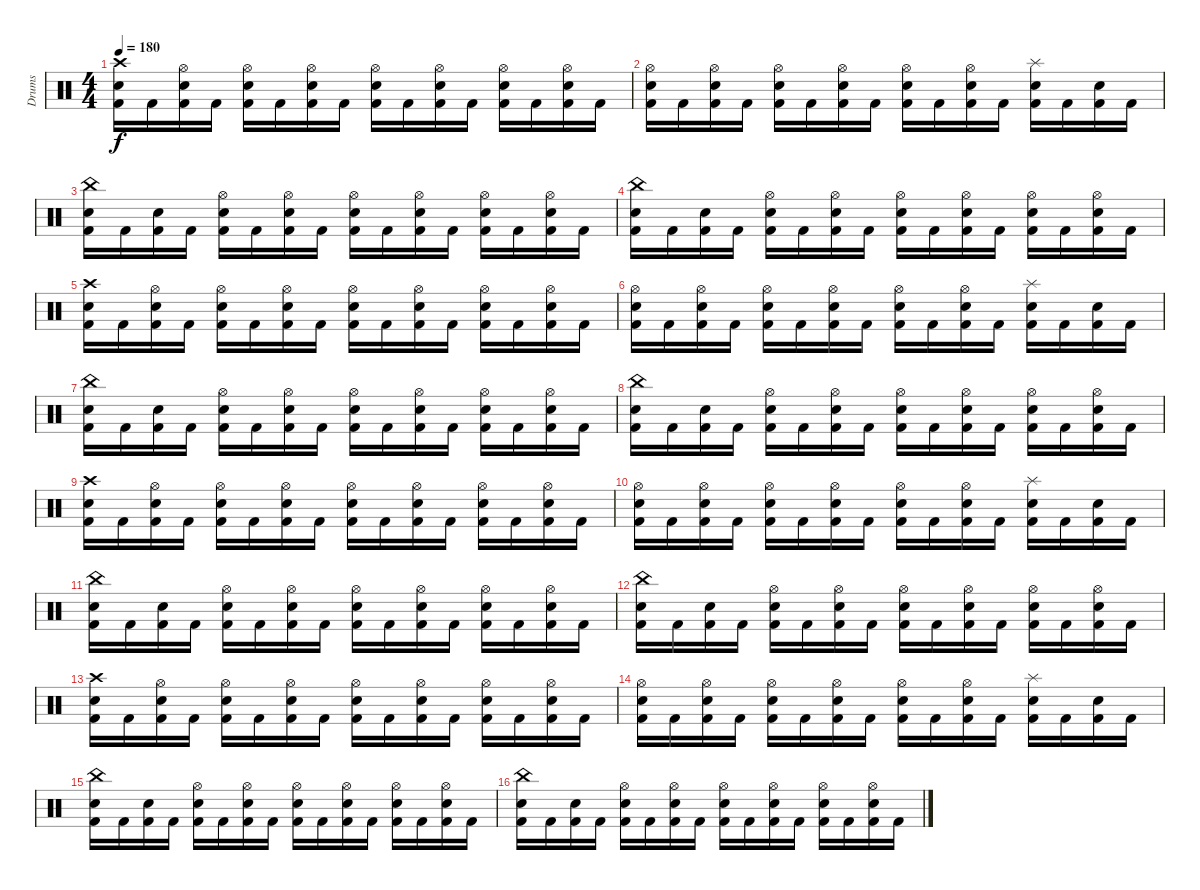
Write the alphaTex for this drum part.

\track ("Drums" "Drums") {instrument percussion}
\staff {score}
\articulation defaults
\ts (4 4)
\tempo 180
\clef neutral
\ks c
("Kick (hit) 2" "Snare (hit) 2" "Crash high (hit)").16{dy f} "Kick (hit) 2".16 ("Kick (hit) 2" "Snare (hit) 2" "Hi-Hat (open)").16 "Kick (hit) 2".16 ("Kick (hit) 2" "Snare (hit) 2" "Hi-Hat (open)").16 "Kick (hit) 2".16 ("Kick (hit) 2" "Snare (hit) 2" "Hi-Hat (open)").16 "Kick (hit) 2".16 ("Kick (hit) 2" "Snare (hit) 2" "Hi-Hat (open)").16 "Kick (hit) 2".16 ("Kick (hit) 2" "Snare (hit) 2" "Hi-Hat (open)").16 "Kick (hit) 2".16 ("Kick (hit) 2" "Snare (hit) 2" "Hi-Hat (open)").16 "Kick (hit) 2".16 ("Kick (hit) 2" "Snare (hit) 2" "Hi-Hat (open)").16 "Kick (hit) 2".16 |
("Kick (hit) 2" "Snare (hit) 2" "Hi-Hat (open)").16 "Kick (hit) 2".16 ("Kick (hit) 2" "Snare (hit) 2" "Hi-Hat (open)").16 "Kick (hit) 2".16 ("Kick (hit) 2" "Snare (hit) 2" "Hi-Hat (open)").16 "Kick (hit) 2".16 ("Kick (hit) 2" "Snare (hit) 2" "Hi-Hat (open)").16 "Kick (hit) 2".16 ("Kick (hit) 2" "Snare (hit) 2" "Hi-Hat (open)").16 "Kick (hit) 2".16 ("Kick (hit) 2" "Snare (hit) 2" "Hi-Hat (open)").16 "Kick (hit) 2".16 ("Kick (hit) 2" "Snare (hit) 2" "Splash (hit)").16 "Kick (hit) 2".16 ("Kick (hit) 2" "Snare (hit) 2").16 "Kick (hit) 2".16 |
("Kick (hit) 2" "Snare (hit) 2" "China (hit)").16 "Kick (hit) 2".16 ("Kick (hit) 2" "Snare (hit) 2").16 "Kick (hit) 2".16 ("Kick (hit) 2" "Snare (hit) 2" "Hi-Hat (open)").16 "Kick (hit) 2".16 ("Kick (hit) 2" "Snare (hit) 2" "Hi-Hat (open)").16 "Kick (hit) 2".16 ("Kick (hit) 2" "Snare (hit) 2" "Hi-Hat (open)").16 "Kick (hit) 2".16 ("Kick (hit) 2" "Snare (hit) 2" "Hi-Hat (open)").16 "Kick (hit) 2".16 ("Kick (hit) 2" "Snare (hit) 2" "Hi-Hat (open)").16 "Kick (hit) 2".16 ("Kick (hit) 2" "Snare (hit) 2" "Hi-Hat (open)").16 "Kick (hit) 2".16 |
("Kick (hit) 2" "Snare (hit) 2" "China (hit)").16 "Kick (hit) 2".16 ("Kick (hit) 2" "Snare (hit) 2").16 "Kick (hit) 2".16 ("Kick (hit) 2" "Snare (hit) 2" "Hi-Hat (open)").16 "Kick (hit) 2".16 ("Kick (hit) 2" "Snare (hit) 2" "Hi-Hat (open)").16 "Kick (hit) 2".16 ("Kick (hit) 2" "Snare (hit) 2" "Hi-Hat (open)").16 "Kick (hit) 2".16 ("Kick (hit) 2" "Snare (hit) 2" "Hi-Hat (open)").16 "Kick (hit) 2".16 ("Kick (hit) 2" "Snare (hit) 2" "Hi-Hat (open)").16 "Kick (hit) 2".16 ("Kick (hit) 2" "Snare (hit) 2" "Hi-Hat (open)").16 "Kick (hit) 2".16 |
("Kick (hit) 2" "Snare (hit) 2" "Crash high (hit)").16 "Kick (hit) 2".16 ("Kick (hit) 2" "Snare (hit) 2" "Hi-Hat (open)").16 "Kick (hit) 2".16 ("Kick (hit) 2" "Snare (hit) 2" "Hi-Hat (open)").16 "Kick (hit) 2".16 ("Kick (hit) 2" "Snare (hit) 2" "Hi-Hat (open)").16 "Kick (hit) 2".16 ("Kick (hit) 2" "Snare (hit) 2" "Hi-Hat (open)").16 "Kick (hit) 2".16 ("Kick (hit) 2" "Snare (hit) 2" "Hi-Hat (open)").16 "Kick (hit) 2".16 ("Kick (hit) 2" "Snare (hit) 2" "Hi-Hat (open)").16 "Kick (hit) 2".16 ("Kick (hit) 2" "Snare (hit) 2" "Hi-Hat (open)").16 "Kick (hit) 2".16 |
("Kick (hit) 2" "Snare (hit) 2" "Hi-Hat (open)").16 "Kick (hit) 2".16 ("Kick (hit) 2" "Snare (hit) 2" "Hi-Hat (open)").16 "Kick (hit) 2".16 ("Kick (hit) 2" "Snare (hit) 2" "Hi-Hat (open)").16 "Kick (hit) 2".16 ("Kick (hit) 2" "Snare (hit) 2" "Hi-Hat (open)").16 "Kick (hit) 2".16 ("Kick (hit) 2" "Snare (hit) 2" "Hi-Hat (open)").16 "Kick (hit) 2".16 ("Kick (hit) 2" "Snare (hit) 2" "Hi-Hat (open)").16 "Kick (hit) 2".16 ("Kick (hit) 2" "Snare (hit) 2" "Splash (hit)").16 "Kick (hit) 2".16 ("Kick (hit) 2" "Snare (hit) 2").16 "Kick (hit) 2".16 |
("Kick (hit) 2" "Snare (hit) 2" "China (hit)").16 "Kick (hit) 2".16 ("Kick (hit) 2" "Snare (hit) 2").16 "Kick (hit) 2".16 ("Kick (hit) 2" "Snare (hit) 2" "Hi-Hat (open)").16 "Kick (hit) 2".16 ("Kick (hit) 2" "Snare (hit) 2" "Hi-Hat (open)").16 "Kick (hit) 2".16 ("Kick (hit) 2" "Snare (hit) 2" "Hi-Hat (open)").16 "Kick (hit) 2".16 ("Kick (hit) 2" "Snare (hit) 2" "Hi-Hat (open)").16 "Kick (hit) 2".16 ("Kick (hit) 2" "Snare (hit) 2" "Hi-Hat (open)").16 "Kick (hit) 2".16 ("Kick (hit) 2" "Snare (hit) 2" "Hi-Hat (open)").16 "Kick (hit) 2".16 |
("Kick (hit) 2" "Snare (hit) 2" "China (hit)").16 "Kick (hit) 2".16 ("Kick (hit) 2" "Snare (hit) 2").16 "Kick (hit) 2".16 ("Kick (hit) 2" "Snare (hit) 2" "Hi-Hat (open)").16 "Kick (hit) 2".16 ("Kick (hit) 2" "Snare (hit) 2" "Hi-Hat (open)").16 "Kick (hit) 2".16 ("Kick (hit) 2" "Snare (hit) 2" "Hi-Hat (open)").16 "Kick (hit) 2".16 ("Kick (hit) 2" "Snare (hit) 2" "Hi-Hat (open)").16 "Kick (hit) 2".16 ("Kick (hit) 2" "Snare (hit) 2" "Hi-Hat (open)").16 "Kick (hit) 2".16 ("Kick (hit) 2" "Snare (hit) 2" "Hi-Hat (open)").16 "Kick (hit) 2".16 |
("Kick (hit) 2" "Snare (hit) 2" "Crash high (hit)").16 "Kick (hit) 2".16 ("Kick (hit) 2" "Snare (hit) 2" "Hi-Hat (open)").16 "Kick (hit) 2".16 ("Kick (hit) 2" "Snare (hit) 2" "Hi-Hat (open)").16 "Kick (hit) 2".16 ("Kick (hit) 2" "Snare (hit) 2" "Hi-Hat (open)").16 "Kick (hit) 2".16 ("Kick (hit) 2" "Snare (hit) 2" "Hi-Hat (open)").16 "Kick (hit) 2".16 ("Kick (hit) 2" "Snare (hit) 2" "Hi-Hat (open)").16 "Kick (hit) 2".16 ("Kick (hit) 2" "Snare (hit) 2" "Hi-Hat (open)").16 "Kick (hit) 2".16 ("Kick (hit) 2" "Snare (hit) 2" "Hi-Hat (open)").16 "Kick (hit) 2".16 |
("Kick (hit) 2" "Snare (hit) 2" "Hi-Hat (open)").16 "Kick (hit) 2".16 ("Kick (hit) 2" "Snare (hit) 2" "Hi-Hat (open)").16 "Kick (hit) 2".16 ("Kick (hit) 2" "Snare (hit) 2" "Hi-Hat (open)").16 "Kick (hit) 2".16 ("Kick (hit) 2" "Snare (hit) 2" "Hi-Hat (open)").16 "Kick (hit) 2".16 ("Kick (hit) 2" "Snare (hit) 2" "Hi-Hat (open)").16 "Kick (hit) 2".16 ("Kick (hit) 2" "Snare (hit) 2" "Hi-Hat (open)").16 "Kick (hit) 2".16 ("Kick (hit) 2" "Snare (hit) 2" "Splash (hit)").16 "Kick (hit) 2".16 ("Kick (hit) 2" "Snare (hit) 2").16 "Kick (hit) 2".16 |
("Kick (hit) 2" "Snare (hit) 2" "China (hit)").16 "Kick (hit) 2".16 ("Kick (hit) 2" "Snare (hit) 2").16 "Kick (hit) 2".16 ("Kick (hit) 2" "Snare (hit) 2" "Hi-Hat (open)").16 "Kick (hit) 2".16 ("Kick (hit) 2" "Snare (hit) 2" "Hi-Hat (open)").16 "Kick (hit) 2".16 ("Kick (hit) 2" "Snare (hit) 2" "Hi-Hat (open)").16 "Kick (hit) 2".16 ("Kick (hit) 2" "Snare (hit) 2" "Hi-Hat (open)").16 "Kick (hit) 2".16 ("Kick (hit) 2" "Snare (hit) 2" "Hi-Hat (open)").16 "Kick (hit) 2".16 ("Kick (hit) 2" "Snare (hit) 2" "Hi-Hat (open)").16 "Kick (hit) 2".16 |
("Kick (hit) 2" "Snare (hit) 2" "China (hit)").16 "Kick (hit) 2".16 ("Kick (hit) 2" "Snare (hit) 2").16 "Kick (hit) 2".16 ("Kick (hit) 2" "Snare (hit) 2" "Hi-Hat (open)").16 "Kick (hit) 2".16 ("Kick (hit) 2" "Snare (hit) 2" "Hi-Hat (open)").16 "Kick (hit) 2".16 ("Kick (hit) 2" "Snare (hit) 2" "Hi-Hat (open)").16 "Kick (hit) 2".16 ("Kick (hit) 2" "Snare (hit) 2" "Hi-Hat (open)").16 "Kick (hit) 2".16 ("Kick (hit) 2" "Snare (hit) 2" "Hi-Hat (open)").16 "Kick (hit) 2".16 ("Kick (hit) 2" "Snare (hit) 2" "Hi-Hat (open)").16 "Kick (hit) 2".16 |
("Kick (hit) 2" "Snare (hit) 2" "Crash high (hit)").16 "Kick (hit) 2".16 ("Kick (hit) 2" "Snare (hit) 2" "Hi-Hat (open)").16 "Kick (hit) 2".16 ("Kick (hit) 2" "Snare (hit) 2" "Hi-Hat (open)").16 "Kick (hit) 2".16 ("Kick (hit) 2" "Snare (hit) 2" "Hi-Hat (open)").16 "Kick (hit) 2".16 ("Kick (hit) 2" "Snare (hit) 2" "Hi-Hat (open)").16 "Kick (hit) 2".16 ("Kick (hit) 2" "Snare (hit) 2" "Hi-Hat (open)").16 "Kick (hit) 2".16 ("Kick (hit) 2" "Snare (hit) 2" "Hi-Hat (open)").16 "Kick (hit) 2".16 ("Kick (hit) 2" "Snare (hit) 2" "Hi-Hat (open)").16 "Kick (hit) 2".16 |
("Kick (hit) 2" "Snare (hit) 2" "Hi-Hat (open)").16 "Kick (hit) 2".16 ("Kick (hit) 2" "Snare (hit) 2" "Hi-Hat (open)").16 "Kick (hit) 2".16 ("Kick (hit) 2" "Snare (hit) 2" "Hi-Hat (open)").16 "Kick (hit) 2".16 ("Kick (hit) 2" "Snare (hit) 2" "Hi-Hat (open)").16 "Kick (hit) 2".16 ("Kick (hit) 2" "Snare (hit) 2" "Hi-Hat (open)").16 "Kick (hit) 2".16 ("Kick (hit) 2" "Snare (hit) 2" "Hi-Hat (open)").16 "Kick (hit) 2".16 ("Kick (hit) 2" "Snare (hit) 2" "Splash (hit)").16 "Kick (hit) 2".16 ("Kick (hit) 2" "Snare (hit) 2").16 "Kick (hit) 2".16 |
("Kick (hit) 2" "Snare (hit) 2" "China (hit)").16 "Kick (hit) 2".16 ("Kick (hit) 2" "Snare (hit) 2").16 "Kick (hit) 2".16 ("Kick (hit) 2" "Snare (hit) 2" "Hi-Hat (open)").16 "Kick (hit) 2".16 ("Kick (hit) 2" "Snare (hit) 2" "Hi-Hat (open)").16 "Kick (hit) 2".16 ("Kick (hit) 2" "Snare (hit) 2" "Hi-Hat (open)").16 "Kick (hit) 2".16 ("Kick (hit) 2" "Snare (hit) 2" "Hi-Hat (open)").16 "Kick (hit) 2".16 ("Kick (hit) 2" "Snare (hit) 2" "Hi-Hat (open)").16 "Kick (hit) 2".16 ("Kick (hit) 2" "Snare (hit) 2" "Hi-Hat (open)").16 "Kick (hit) 2".16 |
("Kick (hit) 2" "Snare (hit) 2" "China (hit)").16 "Kick (hit) 2".16 ("Kick (hit) 2" "Snare (hit) 2").16 "Kick (hit) 2".16 ("Kick (hit) 2" "Snare (hit) 2" "Hi-Hat (open)").16 "Kick (hit) 2".16 ("Kick (hit) 2" "Snare (hit) 2" "Hi-Hat (open)").16 "Kick (hit) 2".16 ("Kick (hit) 2" "Snare (hit) 2" "Hi-Hat (open)").16 "Kick (hit) 2".16 ("Kick (hit) 2" "Snare (hit) 2" "Hi-Hat (open)").16 "Kick (hit) 2".16 ("Kick (hit) 2" "Snare (hit) 2" "Hi-Hat (open)").16 "Kick (hit) 2".16 ("Kick (hit) 2" "Snare (hit) 2" "Hi-Hat (open)").16 "Kick (hit) 2".16
